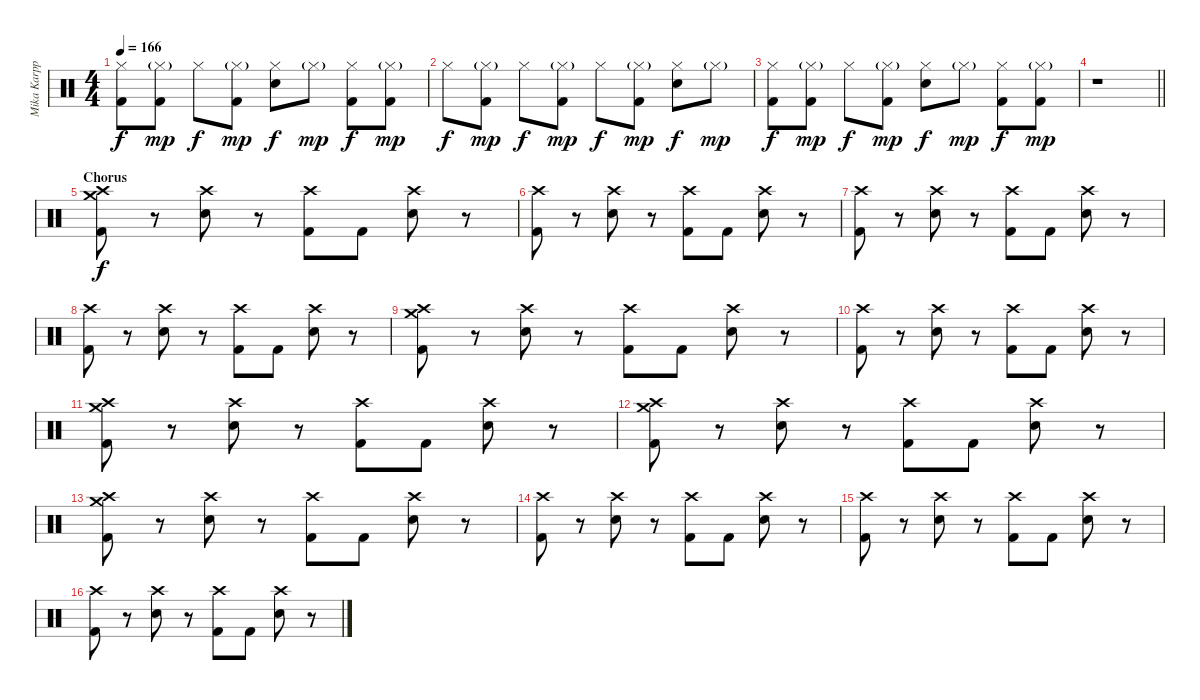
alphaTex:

\track ("Mika Karppinen" "Mika Karpp") {instrument percussion}
\staff {score}
\articulation defaults
\ts (4 4)
\tempo 166
\clef neutral
\ks c
("Hi-Hat (closed)" "Kick (hit) 2").8{dy f} ("Hi-Hat (closed)"{g} "Kick (hit) 2").8{dy mp} "Hi-Hat (closed)".8{dy f} ("Hi-Hat (closed)"{g} "Kick (hit) 2").8{dy mp} ("Hi-Hat (closed)" "Snare (hit) 2").8{dy f} "Hi-Hat (closed)"{g}.8{dy mp} ("Hi-Hat (closed)" "Kick (hit) 2").8{dy f} ("Hi-Hat (closed)"{g} "Kick (hit) 2").8{dy mp} |
"Hi-Hat (closed)".8{dy f} ("Hi-Hat (closed)"{g} "Kick (hit) 2").8{dy mp} "Hi-Hat (closed)".8{dy f} ("Hi-Hat (closed)"{g} "Kick (hit) 2").8{dy mp} "Hi-Hat (closed)".8{dy f} ("Hi-Hat (closed)"{g} "Kick (hit) 2").8{dy mp} ("Hi-Hat (closed)" "Snare (hit) 2").8{dy f} "Hi-Hat (closed)"{g}.8{dy mp} |
("Hi-Hat (closed)" "Kick (hit) 2").8{dy f} ("Hi-Hat (closed)"{g} "Kick (hit) 2").8{dy mp} "Hi-Hat (closed)".8{dy f} ("Hi-Hat (closed)"{g} "Kick (hit) 2").8{dy mp} ("Hi-Hat (closed)" "Snare (hit) 2").8{dy f} "Hi-Hat (closed)"{g}.8{dy mp} ("Hi-Hat (closed)" "Kick (hit) 2").8{dy f} ("Hi-Hat (closed)"{g} "Kick (hit) 2").8{dy mp} |
\barLineRight lightlight
r.1 |
\section ("" "Chorus")
("Crash medium (hit)" "Crash high (hit)" "Kick (hit) 2").8{dy f} r.8 ("Crash high (hit)" "Snare (hit) 2").8 r.8 ("Crash high (hit)" "Kick (hit) 2").8 "Kick (hit) 2".8 ("Crash high (hit)" "Snare (hit) 2").8 r.8 |
("Crash high (hit)" "Kick (hit) 2").8 r.8 ("Crash high (hit)" "Snare (hit) 2").8 r.8 ("Crash high (hit)" "Kick (hit) 2").8 "Kick (hit) 2".8 ("Crash high (hit)" "Snare (hit) 2").8 r.8 |
("Crash high (hit)" "Kick (hit) 2").8 r.8 ("Crash high (hit)" "Snare (hit) 2").8 r.8 ("Crash high (hit)" "Kick (hit) 2").8 "Kick (hit) 2".8 ("Crash high (hit)" "Snare (hit) 2").8 r.8 |
("Crash high (hit)" "Kick (hit) 2").8 r.8 ("Crash high (hit)" "Snare (hit) 2").8 r.8 ("Crash high (hit)" "Kick (hit) 2").8 "Kick (hit) 2".8 ("Crash high (hit)" "Snare (hit) 2").8 r.8 |
("Crash medium (hit)" "Crash high (hit)" "Kick (hit) 2").8 r.8 ("Crash high (hit)" "Snare (hit) 2").8 r.8 ("Crash high (hit)" "Kick (hit) 2").8 "Kick (hit) 2".8 ("Crash high (hit)" "Snare (hit) 2").8 r.8 |
("Crash high (hit)" "Kick (hit) 2").8 r.8 ("Crash high (hit)" "Snare (hit) 2").8 r.8 ("Crash high (hit)" "Kick (hit) 2").8 "Kick (hit) 2".8 ("Crash high (hit)" "Snare (hit) 2").8 r.8 |
("Crash medium (hit)" "Crash high (hit)" "Kick (hit) 2").8 r.8 ("Crash high (hit)" "Snare (hit) 2").8 r.8 ("Crash high (hit)" "Kick (hit) 2").8 "Kick (hit) 2".8 ("Crash high (hit)" "Snare (hit) 2").8 r.8 |
("Crash medium (hit)" "Crash high (hit)" "Kick (hit) 2").8 r.8 ("Crash high (hit)" "Snare (hit) 2").8 r.8 ("Crash high (hit)" "Kick (hit) 2").8 "Kick (hit) 2".8 ("Crash high (hit)" "Snare (hit) 2").8 r.8 |
("Crash medium (hit)" "Crash high (hit)" "Kick (hit) 2").8 r.8 ("Crash high (hit)" "Snare (hit) 2").8 r.8 ("Crash high (hit)" "Kick (hit) 2").8 "Kick (hit) 2".8 ("Crash high (hit)" "Snare (hit) 2").8 r.8 |
("Crash high (hit)" "Kick (hit) 2").8 r.8 ("Crash high (hit)" "Snare (hit) 2").8 r.8 ("Crash high (hit)" "Kick (hit) 2").8 "Kick (hit) 2".8 ("Crash high (hit)" "Snare (hit) 2").8 r.8 |
("Crash high (hit)" "Kick (hit) 2").8 r.8 ("Crash high (hit)" "Snare (hit) 2").8 r.8 ("Crash high (hit)" "Kick (hit) 2").8 "Kick (hit) 2".8 ("Crash high (hit)" "Snare (hit) 2").8 r.8 |
("Crash high (hit)" "Kick (hit) 2").8 r.8 ("Crash high (hit)" "Snare (hit) 2").8 r.8 ("Crash high (hit)" "Kick (hit) 2").8 "Kick (hit) 2".8 ("Crash high (hit)" "Snare (hit) 2").8 r.8
